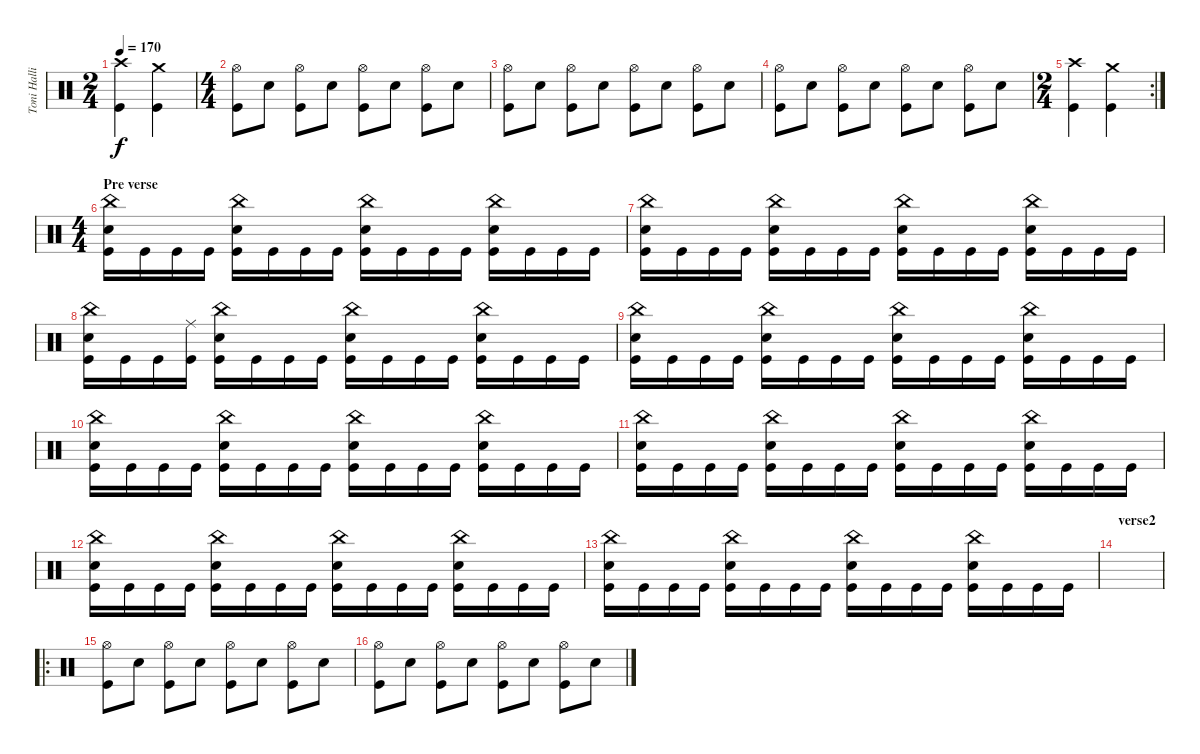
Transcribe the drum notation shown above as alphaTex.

\track ("Toni Hallio" "Toni Halli") {instrument percussion}
\staff {score}
\articulation defaults
\ts (2 4)
\tempo 170
\clef neutral
\ks c
("Crash high (hit)" "Kick (hit)").4{dy f} ("Crash medium (hit)" "Kick (hit)").4 |
\ts (4 4)
("Hi-Hat (open)" "Kick (hit)").8 "Snare (hit) 2".8 ("Hi-Hat (open)" "Kick (hit)").8 "Snare (hit) 2".8 ("Hi-Hat (open)" "Kick (hit)").8 "Snare (hit) 2".8 ("Hi-Hat (open)" "Kick (hit)").8 "Snare (hit) 2".8 |
("Hi-Hat (open)" "Kick (hit)").8 "Snare (hit) 2".8 ("Hi-Hat (open)" "Kick (hit)").8 "Snare (hit) 2".8 ("Hi-Hat (open)" "Kick (hit)").8 "Snare (hit) 2".8 ("Hi-Hat (open)" "Kick (hit)").8 "Snare (hit) 2".8 |
("Hi-Hat (open)" "Kick (hit)").8 "Snare (hit) 2".8 ("Hi-Hat (open)" "Kick (hit)").8 "Snare (hit) 2".8 ("Hi-Hat (open)" "Kick (hit)").8 "Snare (hit) 2".8 ("Hi-Hat (open)" "Kick (hit)").8 "Snare (hit) 2".8 |
\rc 2
\ts (2 4)
("Crash high (hit)" "Kick (hit)").4 ("Crash medium (hit)" "Kick (hit)").4 |
\ts (4 4)
\section ("" "Pre verse")
("China (hit)" "Snare (hit) 2" "Kick (hit)").16 "Kick (hit)".16 "Kick (hit)".16 "Kick (hit)".16 ("China (hit)" "Snare (hit) 2" "Kick (hit)").16 "Kick (hit)".16 "Kick (hit)".16 "Kick (hit)".16 ("China (hit)" "Snare (hit) 2" "Kick (hit)").16 "Kick (hit)".16 "Kick (hit)".16 "Kick (hit)".16 ("China (hit)" "Snare (hit) 2" "Kick (hit)").16 "Kick (hit)".16 "Kick (hit)".16 "Kick (hit)".16 |
("China (hit)" "Snare (hit) 2" "Kick (hit)").16 "Kick (hit)".16 "Kick (hit)".16 "Kick (hit)".16 ("China (hit)" "Snare (hit) 2" "Kick (hit)").16 "Kick (hit)".16 "Kick (hit)".16 "Kick (hit)".16 ("China (hit)" "Snare (hit) 2" "Kick (hit)").16 "Kick (hit)".16 "Kick (hit)".16 "Kick (hit)".16 ("China (hit)" "Snare (hit) 2" "Kick (hit)").16 "Kick (hit)".16 "Kick (hit)".16 "Kick (hit)".16 |
("China (hit)" "Snare (hit) 2" "Kick (hit)").16 "Kick (hit)".16 "Kick (hit)".16 ("Ride (middle)" "Kick (hit)").16 ("China (hit)" "Snare (hit) 2" "Kick (hit)").16 "Kick (hit)".16 "Kick (hit)".16 "Kick (hit)".16 ("China (hit)" "Snare (hit) 2" "Kick (hit)").16 "Kick (hit)".16 "Kick (hit)".16 "Kick (hit)".16 ("China (hit)" "Snare (hit) 2" "Kick (hit)").16 "Kick (hit)".16 "Kick (hit)".16 "Kick (hit)".16 |
("China (hit)" "Snare (hit) 2" "Kick (hit)").16 "Kick (hit)".16 "Kick (hit)".16 "Kick (hit)".16 ("China (hit)" "Snare (hit) 2" "Kick (hit)").16 "Kick (hit)".16 "Kick (hit)".16 "Kick (hit)".16 ("China (hit)" "Snare (hit) 2" "Kick (hit)").16 "Kick (hit)".16 "Kick (hit)".16 "Kick (hit)".16 ("China (hit)" "Snare (hit) 2" "Kick (hit)").16 "Kick (hit)".16 "Kick (hit)".16 "Kick (hit)".16 |
("China (hit)" "Snare (hit) 2" "Kick (hit)").16 "Kick (hit)".16 "Kick (hit)".16 "Kick (hit)".16 ("China (hit)" "Snare (hit) 2" "Kick (hit)").16 "Kick (hit)".16 "Kick (hit)".16 "Kick (hit)".16 ("China (hit)" "Snare (hit) 2" "Kick (hit)").16 "Kick (hit)".16 "Kick (hit)".16 "Kick (hit)".16 ("China (hit)" "Snare (hit) 2" "Kick (hit)").16 "Kick (hit)".16 "Kick (hit)".16 "Kick (hit)".16 |
("China (hit)" "Snare (hit) 2" "Kick (hit)").16 "Kick (hit)".16 "Kick (hit)".16 "Kick (hit)".16 ("China (hit)" "Snare (hit) 2" "Kick (hit)").16 "Kick (hit)".16 "Kick (hit)".16 "Kick (hit)".16 ("China (hit)" "Snare (hit) 2" "Kick (hit)").16 "Kick (hit)".16 "Kick (hit)".16 "Kick (hit)".16 ("China (hit)" "Snare (hit) 2" "Kick (hit)").16 "Kick (hit)".16 "Kick (hit)".16 "Kick (hit)".16 |
("China (hit)" "Snare (hit) 2" "Kick (hit)").16 "Kick (hit)".16 "Kick (hit)".16 "Kick (hit)".16 ("China (hit)" "Snare (hit) 2" "Kick (hit)").16 "Kick (hit)".16 "Kick (hit)".16 "Kick (hit)".16 ("China (hit)" "Snare (hit) 2" "Kick (hit)").16 "Kick (hit)".16 "Kick (hit)".16 "Kick (hit)".16 ("China (hit)" "Snare (hit) 2" "Kick (hit)").16 "Kick (hit)".16 "Kick (hit)".16 "Kick (hit)".16 |
("China (hit)" "Snare (hit) 2" "Kick (hit)").16 "Kick (hit)".16 "Kick (hit)".16 "Kick (hit)".16 ("China (hit)" "Snare (hit) 2" "Kick (hit)").16 "Kick (hit)".16 "Kick (hit)".16 "Kick (hit)".16 ("China (hit)" "Snare (hit) 2" "Kick (hit)").16 "Kick (hit)".16 "Kick (hit)".16 "Kick (hit)".16 ("China (hit)" "Snare (hit) 2" "Kick (hit)").16 "Kick (hit)".16 "Kick (hit)".16 "Kick (hit)".16 |
\section ("" "verse2")
|
\ro
("Hi-Hat (open)" "Kick (hit)").8 "Snare (hit) 2".8 ("Hi-Hat (open)" "Kick (hit)").8 "Snare (hit) 2".8 ("Hi-Hat (open)" "Kick (hit)").8 "Snare (hit) 2".8 ("Hi-Hat (open)" "Kick (hit)").8 "Snare (hit) 2".8 |
("Hi-Hat (open)" "Kick (hit)").8 "Snare (hit) 2".8 ("Hi-Hat (open)" "Kick (hit)").8 "Snare (hit) 2".8 ("Hi-Hat (open)" "Kick (hit)").8 "Snare (hit) 2".8 ("Hi-Hat (open)" "Kick (hit)").8 "Snare (hit) 2".8
